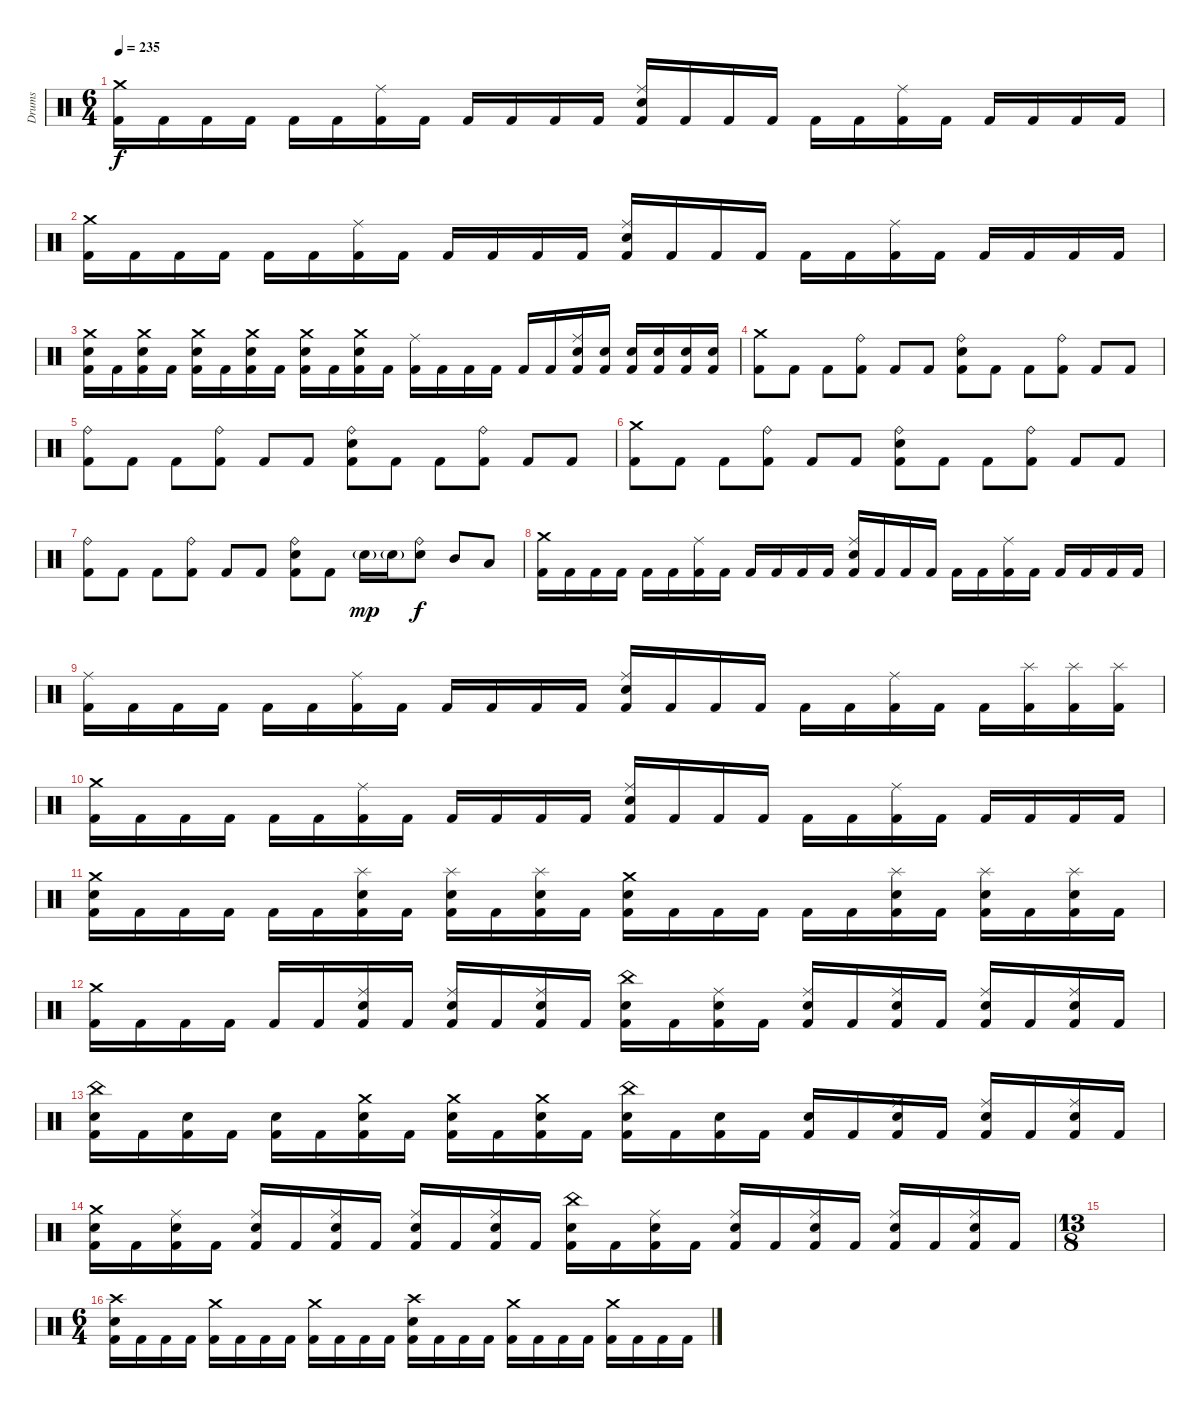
\track ("Drums" "Drums") {instrument percussion}
\staff {score}
\articulation defaults
\ts (6 4)
\tempo 235
\clef neutral
\ks c
("Crash medium (hit)" "Kick (hit) 2").16{dy f} "Kick (hit) 2".16 "Kick (hit) 2".16 "Kick (hit) 2".16 "Kick (hit) 2".16 "Kick (hit) 2".16 ("Ride (middle)" "Kick (hit) 2").16 "Kick (hit) 2".16 "Kick (hit) 2".16 "Kick (hit) 2".16 "Kick (hit) 2".16 "Kick (hit) 2".16 ("Ride (middle)" "Electric Snare (hit)" "Kick (hit) 2").16 "Kick (hit) 2".16 "Kick (hit) 2".16 "Kick (hit) 2".16 "Kick (hit) 2".16 "Kick (hit) 2".16 ("Ride (middle)" "Kick (hit) 2").16 "Kick (hit) 2".16 "Kick (hit) 2".16 "Kick (hit) 2".16 "Kick (hit) 2".16 "Kick (hit) 2".16 |
("Crash medium (hit)" "Kick (hit) 2").16 "Kick (hit) 2".16 "Kick (hit) 2".16 "Kick (hit) 2".16 "Kick (hit) 2".16 "Kick (hit) 2".16 ("Ride (middle)" "Kick (hit) 2").16 "Kick (hit) 2".16 "Kick (hit) 2".16 "Kick (hit) 2".16 "Kick (hit) 2".16 "Kick (hit) 2".16 ("Ride (middle)" "Electric Snare (hit)" "Kick (hit) 2").16 "Kick (hit) 2".16 "Kick (hit) 2".16 "Kick (hit) 2".16 "Kick (hit) 2".16 "Kick (hit) 2".16 ("Ride (middle)" "Kick (hit) 2").16 "Kick (hit) 2".16 "Kick (hit) 2".16 "Kick (hit) 2".16 "Kick (hit) 2".16 "Kick (hit) 2".16 |
("Crash medium (hit)" "Electric Snare (hit)" "Kick (hit) 2").16 "Kick (hit) 2".16 ("Crash medium (hit)" "Electric Snare (hit)" "Kick (hit) 2").16 "Kick (hit) 2".16 ("Crash medium (hit)" "Electric Snare (hit)" "Kick (hit) 2").16 "Kick (hit) 2".16 ("Crash medium (hit)" "Electric Snare (hit)" "Kick (hit) 2").16 "Kick (hit) 2".16 ("Crash medium (hit)" "Electric Snare (hit)" "Kick (hit) 2").16 "Kick (hit) 2".16 ("Crash medium (hit)" "Electric Snare (hit)" "Kick (hit) 2").16 "Kick (hit) 2".16 ("Ride (middle)" "Kick (hit) 2").16 "Kick (hit) 2".16 "Kick (hit) 2".16 "Kick (hit) 2".16 "Kick (hit) 2".16 "Kick (hit) 2".16 ("Ride (middle)" "Electric Snare (hit)" "Kick (hit) 2").16 ("Electric Snare (hit)" "Kick (hit) 2").16 ("Electric Snare (hit)" "Kick (hit) 2").16 ("Electric Snare (hit)" "Kick (hit) 2").16 ("Electric Snare (hit)" "Kick (hit) 2").16 ("Electric Snare (hit)" "Kick (hit) 2").16 |
("Crash medium (hit)" "Kick (hit) 2").8 "Kick (hit) 2".8 "Kick (hit) 2".8 ("Ride (bell)" "Kick (hit) 2").8 "Kick (hit) 2".8 "Kick (hit) 2".8 ("Ride (bell)" "Electric Snare (hit)" "Kick (hit) 2").8 "Kick (hit) 2".8 "Kick (hit) 2".8 ("Ride (bell)" "Kick (hit) 2").8 "Kick (hit) 2".8 "Kick (hit) 2".8 |
("Ride (bell)" "Kick (hit) 2").8 "Kick (hit) 2".8 "Kick (hit) 2".8 ("Ride (bell)" "Kick (hit) 2").8 "Kick (hit) 2".8 "Kick (hit) 2".8 ("Ride (bell)" "Electric Snare (hit)" "Kick (hit) 2").8 "Kick (hit) 2".8 "Kick (hit) 2".8 ("Ride (bell)" "Kick (hit) 2").8 "Kick (hit) 2".8 "Kick (hit) 2".8 |
("Crash medium (hit)" "Kick (hit) 2").8 "Kick (hit) 2".8 "Kick (hit) 2".8 ("Ride (bell)" "Kick (hit) 2").8 "Kick (hit) 2".8 "Kick (hit) 2".8 ("Ride (bell)" "Electric Snare (hit)" "Kick (hit) 2").8 "Kick (hit) 2".8 "Kick (hit) 2".8 ("Ride (bell)" "Kick (hit) 2").8 "Kick (hit) 2".8 "Kick (hit) 2".8 |
("Ride (bell)" "Kick (hit) 2").8 "Kick (hit) 2".8 "Kick (hit) 2".8 ("Ride (bell)" "Kick (hit) 2").8 "Kick (hit) 2".8 "Kick (hit) 2".8 ("Ride (bell)" "Electric Snare (hit)" "Kick (hit) 2").8 "Kick (hit) 2".8 "Electric Snare (hit)"{g}.16{dy mp} "Electric Snare (hit)"{g}.16 ("Ride (bell)" "Electric Snare (hit)").8{dy f} "Mid Tom (hit)".8 "Low Tom (hit)".8 |
("Crash medium (hit)" "Kick (hit) 2").16 "Kick (hit) 2".16 "Kick (hit) 2".16 "Kick (hit) 2".16 "Kick (hit) 2".16 "Kick (hit) 2".16 ("Ride (middle)" "Kick (hit) 2").16 "Kick (hit) 2".16 "Kick (hit) 2".16 "Kick (hit) 2".16 "Kick (hit) 2".16 "Kick (hit) 2".16 ("Ride (middle)" "Electric Snare (hit)" "Kick (hit) 2").16 "Kick (hit) 2".16 "Kick (hit) 2".16 "Kick (hit) 2".16 "Kick (hit) 2".16 "Kick (hit) 2".16 ("Ride (middle)" "Kick (hit) 2").16 "Kick (hit) 2".16 "Kick (hit) 2".16 "Kick (hit) 2".16 "Kick (hit) 2".16 "Kick (hit) 2".16 |
("Ride (middle)" "Kick (hit) 2").16 "Kick (hit) 2".16 "Kick (hit) 2".16 "Kick (hit) 2".16 "Kick (hit) 2".16 "Kick (hit) 2".16 ("Ride (middle)" "Kick (hit) 2").16 "Kick (hit) 2".16 "Kick (hit) 2".16 "Kick (hit) 2".16 "Kick (hit) 2".16 "Kick (hit) 2".16 ("Ride (middle)" "Electric Snare (hit)" "Kick (hit) 2").16 "Kick (hit) 2".16 "Kick (hit) 2".16 "Kick (hit) 2".16 "Kick (hit) 2".16 "Kick (hit) 2".16 ("Ride (middle)" "Kick (hit) 2").16 "Kick (hit) 2".16 "Kick (hit) 2".16 ("Splash (hit)" "Kick (hit) 2").16 ("Splash (hit)" "Kick (hit) 2").16 ("Splash (hit)" "Kick (hit) 2").16 |
("Crash medium (hit)" "Kick (hit) 2").16 "Kick (hit) 2".16 "Kick (hit) 2".16 "Kick (hit) 2".16 "Kick (hit) 2".16 "Kick (hit) 2".16 ("Ride (middle)" "Kick (hit) 2").16 "Kick (hit) 2".16 "Kick (hit) 2".16 "Kick (hit) 2".16 "Kick (hit) 2".16 "Kick (hit) 2".16 ("Ride (middle)" "Electric Snare (hit)" "Kick (hit) 2").16 "Kick (hit) 2".16 "Kick (hit) 2".16 "Kick (hit) 2".16 "Kick (hit) 2".16 "Kick (hit) 2".16 ("Ride (middle)" "Kick (hit) 2").16 "Kick (hit) 2".16 "Kick (hit) 2".16 "Kick (hit) 2".16 "Kick (hit) 2".16 "Kick (hit) 2".16 |
("Crash medium (hit)" "Electric Snare (hit)" "Kick (hit) 2").16 "Kick (hit) 2".16 "Kick (hit) 2".16 "Kick (hit) 2".16 "Kick (hit) 2".16 "Kick (hit) 2".16 ("Splash (hit)" "Electric Snare (hit)" "Kick (hit) 2").16 "Kick (hit) 2".16 ("Splash (hit)" "Electric Snare (hit)" "Kick (hit) 2").16 "Kick (hit) 2".16 ("Splash (hit)" "Electric Snare (hit)" "Kick (hit) 2").16 "Kick (hit) 2".16 ("Crash medium (hit)" "Electric Snare (hit)" "Kick (hit) 2").16 "Kick (hit) 2".16 "Kick (hit) 2".16 "Kick (hit) 2".16 "Kick (hit) 2".16 "Kick (hit) 2".16 ("Splash (hit)" "Electric Snare (hit)" "Kick (hit) 2").16 "Kick (hit) 2".16 ("Splash (hit)" "Electric Snare (hit)" "Kick (hit) 2").16 "Kick (hit) 2".16 ("Splash (hit)" "Electric Snare (hit)" "Kick (hit) 2").16 "Kick (hit) 2".16 |
("Crash medium (hit)" "Kick (hit) 2").16 "Kick (hit) 2".16 "Kick (hit) 2".16 "Kick (hit) 2".16 "Kick (hit) 2".16 "Kick (hit) 2".16 ("Ride (middle)" "Electric Snare (hit)" "Kick (hit) 2").16 "Kick (hit) 2".16 ("Ride (middle)" "Electric Snare (hit)" "Kick (hit) 2").16 "Kick (hit) 2".16 ("Ride (middle)" "Electric Snare (hit)" "Kick (hit) 2").16 "Kick (hit) 2".16 ("China (hit)" "Electric Snare (hit)" "Kick (hit) 2").16 "Kick (hit) 2".16 ("Ride (middle)" "Electric Snare (hit)" "Kick (hit) 2").16 "Kick (hit) 2".16 ("Ride (middle)" "Electric Snare (hit)" "Kick (hit) 2").16 "Kick (hit) 2".16 ("Ride (middle)" "Electric Snare (hit)" "Kick (hit) 2").16 "Kick (hit) 2".16 ("Ride (middle)" "Electric Snare (hit)" "Kick (hit) 2").16 "Kick (hit) 2".16 ("Ride (middle)" "Electric Snare (hit)" "Kick (hit) 2").16 "Kick (hit) 2".16 |
("China (hit)" "Electric Snare (hit)" "Kick (hit) 2").16 "Kick (hit) 2".16 ("Electric Snare (hit)" "Kick (hit) 2").16 "Kick (hit) 2".16 ("Electric Snare (hit)" "Kick (hit) 2").16 "Kick (hit) 2".16 ("Crash medium (hit)" "Electric Snare (hit)" "Kick (hit) 2").16 "Kick (hit) 2".16 ("Crash medium (hit)" "Electric Snare (hit)" "Kick (hit) 2").16 "Kick (hit) 2".16 ("Crash medium (hit)" "Electric Snare (hit)" "Kick (hit) 2").16 "Kick (hit) 2".16 ("China (hit)" "Electric Snare (hit)" "Kick (hit) 2").16 "Kick (hit) 2".16 ("Electric Snare (hit)" "Kick (hit) 2").16 "Kick (hit) 2".16 ("Electric Snare (hit)" "Kick (hit) 2").16 "Kick (hit) 2".16 ("Ride (middle)" "Electric Snare (hit)" "Kick (hit) 2").16 "Kick (hit) 2".16 ("Ride (middle)" "Electric Snare (hit)" "Kick (hit) 2").16 "Kick (hit) 2".16 ("Ride (middle)" "Electric Snare (hit)" "Kick (hit) 2").16 "Kick (hit) 2".16 |
("Crash medium (hit)" "Electric Snare (hit)" "Kick (hit) 2").16 "Kick (hit) 2".16 ("Ride (middle)" "Electric Snare (hit)" "Kick (hit) 2").16 "Kick (hit) 2".16 ("Ride (middle)" "Electric Snare (hit)" "Kick (hit) 2").16 "Kick (hit) 2".16 ("Ride (middle)" "Electric Snare (hit)" "Kick (hit) 2").16 "Kick (hit) 2".16 ("Ride (middle)" "Electric Snare (hit)" "Kick (hit) 2").16 "Kick (hit) 2".16 ("Ride (middle)" "Electric Snare (hit)" "Kick (hit) 2").16 "Kick (hit) 2".16 ("China (hit)" "Electric Snare (hit)" "Kick (hit) 2").16 "Kick (hit) 2".16 ("Ride (middle)" "Electric Snare (hit)" "Kick (hit) 2").16 "Kick (hit) 2".16 ("Ride (middle)" "Electric Snare (hit)" "Kick (hit) 2").16 "Kick (hit) 2".16 ("Ride (middle)" "Electric Snare (hit)" "Kick (hit) 2").16 "Kick (hit) 2".16 ("Ride (middle)" "Electric Snare (hit)" "Kick (hit) 2").16 "Kick (hit) 2".16 ("Ride (middle)" "Electric Snare (hit)" "Kick (hit) 2").16 "Kick (hit) 2".16 |
\ts (13 8)
|
\ts (6 4)
("Crash high (hit)" "Electric Snare (hit)" "Kick (hit) 2").16 "Kick (hit) 2".16 "Kick (hit) 2".16 "Kick (hit) 2".16 ("Crash medium (hit)" "Kick (hit) 2").16 "Kick (hit) 2".16 "Kick (hit) 2".16 "Kick (hit) 2".16 ("Crash medium (hit)" "Kick (hit) 2").16 "Kick (hit) 2".16 "Kick (hit) 2".16 "Kick (hit) 2".16 ("Crash high (hit)" "Electric Snare (hit)" "Kick (hit) 2").16 "Kick (hit) 2".16 "Kick (hit) 2".16 "Kick (hit) 2".16 ("Crash medium (hit)" "Kick (hit) 2").16 "Kick (hit) 2".16 "Kick (hit) 2".16 "Kick (hit) 2".16 ("Crash medium (hit)" "Kick (hit) 2").16 "Kick (hit) 2".16 "Kick (hit) 2".16 "Kick (hit) 2".16
